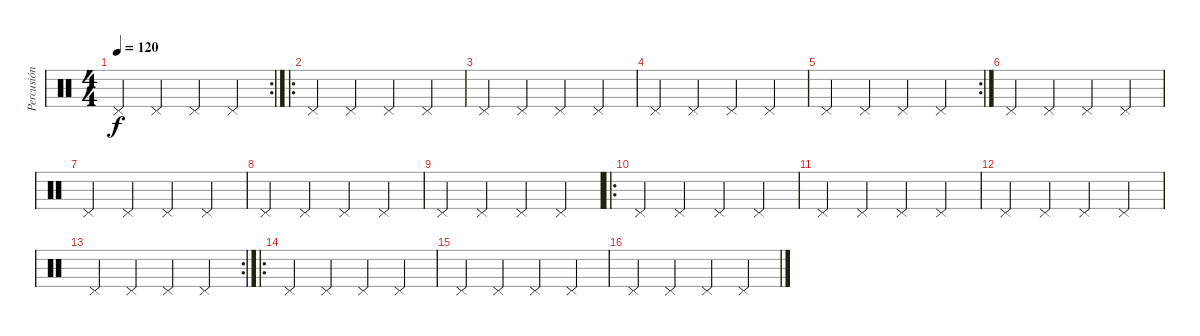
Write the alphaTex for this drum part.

\track ("Percusión" "Percusión") {instrument percussion}
\staff {score}
\articulation defaults
\rc 2
\ts (4 4)
\tempo 120
\clef neutral
\ks c "Pedal Hi-Hat (hit)".4{dy f} "Pedal Hi-Hat (hit)".4 "Pedal Hi-Hat (hit)".4 "Pedal Hi-Hat (hit)".4
|
\ro "Pedal Hi-Hat (hit)".4 "Pedal Hi-Hat (hit)".4 "Pedal Hi-Hat (hit)".4 "Pedal Hi-Hat (hit)".4
|
"Pedal Hi-Hat (hit)".4 "Pedal Hi-Hat (hit)".4 "Pedal Hi-Hat (hit)".4 "Pedal Hi-Hat (hit)".4 |
"Pedal Hi-Hat (hit)".4 "Pedal Hi-Hat (hit)".4 "Pedal Hi-Hat (hit)".4 "Pedal Hi-Hat (hit)".4 |
\rc 2 "Pedal Hi-Hat (hit)".4 "Pedal Hi-Hat (hit)".4 "Pedal Hi-Hat (hit)".4 "Pedal Hi-Hat (hit)".4
|
"Pedal Hi-Hat (hit)".4 "Pedal Hi-Hat (hit)".4 "Pedal Hi-Hat (hit)".4 "Pedal Hi-Hat (hit)".4 |
"Pedal Hi-Hat (hit)".4 "Pedal Hi-Hat (hit)".4 "Pedal Hi-Hat (hit)".4 "Pedal Hi-Hat (hit)".4 |
"Pedal Hi-Hat (hit)".4 "Pedal Hi-Hat (hit)".4 "Pedal Hi-Hat (hit)".4 "Pedal Hi-Hat (hit)".4 |
"Pedal Hi-Hat (hit)".4 "Pedal Hi-Hat (hit)".4 "Pedal Hi-Hat (hit)".4 "Pedal Hi-Hat (hit)".4 |
\ro "Pedal Hi-Hat (hit)".4 "Pedal Hi-Hat (hit)".4 "Pedal Hi-Hat (hit)".4 "Pedal Hi-Hat (hit)".4
|
"Pedal Hi-Hat (hit)".4 "Pedal Hi-Hat (hit)".4 "Pedal Hi-Hat (hit)".4 "Pedal Hi-Hat (hit)".4 |
"Pedal Hi-Hat (hit)".4 "Pedal Hi-Hat (hit)".4 "Pedal Hi-Hat (hit)".4 "Pedal Hi-Hat (hit)".4 |
\rc 2 "Pedal Hi-Hat (hit)".4 "Pedal Hi-Hat (hit)".4 "Pedal Hi-Hat (hit)".4 "Pedal Hi-Hat (hit)".4
|
\ro "Pedal Hi-Hat (hit)".4 "Pedal Hi-Hat (hit)".4 "Pedal Hi-Hat (hit)".4 "Pedal Hi-Hat (hit)".4
|
"Pedal Hi-Hat (hit)".4 "Pedal Hi-Hat (hit)".4 "Pedal Hi-Hat (hit)".4 "Pedal Hi-Hat (hit)".4 |
"Pedal Hi-Hat (hit)".4 "Pedal Hi-Hat (hit)".4 "Pedal Hi-Hat (hit)".4 "Pedal Hi-Hat (hit)".4
